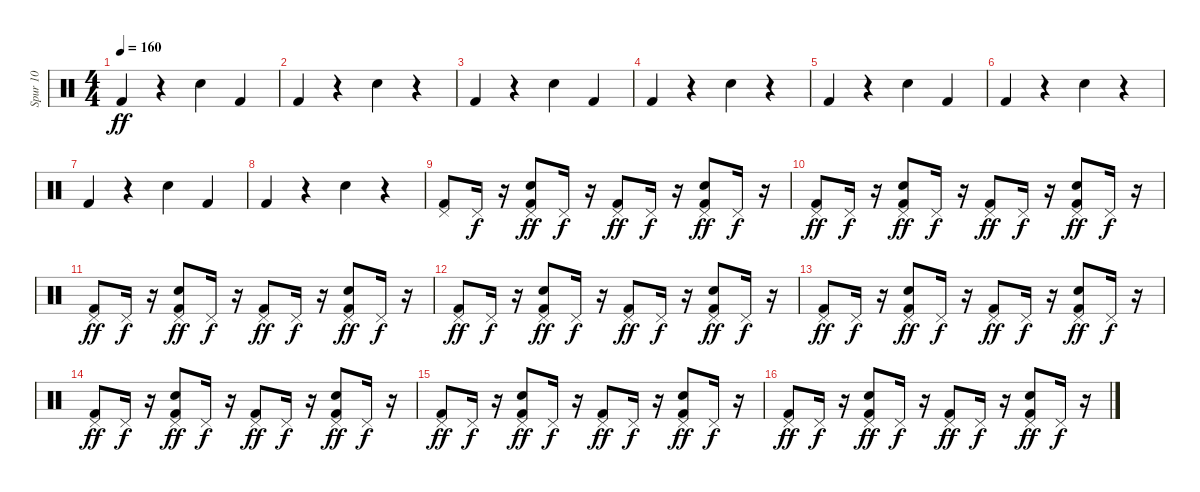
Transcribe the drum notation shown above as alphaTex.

\track ("Spur 10" "Spur 10") {instrument percussion}
\staff {score}
\articulation defaults
\ts (4 4)
\tempo 160
\clef neutral
\ks c "Kick (hit) 2".4{dy ff}
r.4 "Snare (hit) 2".4 "Kick (hit) 2".4 |
"Kick (hit) 2".4 r.4 "Snare (hit) 2".4 r.4 |
"Kick (hit) 2".4 r.4 "Snare (hit) 2".4 "Kick (hit) 2".4 |
"Kick (hit) 2".4 r.4 "Snare (hit) 2".4 r.4 |
"Kick (hit) 2".4 r.4 "Snare (hit) 2".4 "Kick (hit) 2".4 |
"Kick (hit) 2".4 r.4 "Snare (hit) 2".4 r.4 |
"Kick (hit) 2".4 r.4 "Snare (hit) 2".4 "Kick (hit) 2".4 |
"Kick (hit) 2".4 r.4 "Snare (hit) 2".4 r.4 |
("Kick (hit) 2" "Pedal Hi-Hat (hit)").8 "Pedal Hi-Hat (hit)".16{dy f} r.16 ("Kick (hit) 2" "Snare (hit) 2" "Pedal Hi-Hat (hit)").8{dy ff} "Pedal Hi-Hat (hit)".16{dy f} r.16 ("Kick (hit) 2" "Pedal Hi-Hat (hit)").8{dy ff} "Pedal Hi-Hat (hit)".16{dy f} r.16 ("Snare (hit) 2" "Kick (hit) 2" "Pedal Hi-Hat (hit)").8{dy ff} "Pedal Hi-Hat (hit)".16{dy f} r.16 |
("Kick (hit) 2" "Pedal Hi-Hat (hit)").8{dy ff} "Pedal Hi-Hat (hit)".16{dy f} r.16 ("Kick (hit) 2" "Snare (hit) 2" "Pedal Hi-Hat (hit)").8{dy ff} "Pedal Hi-Hat (hit)".16{dy f} r.16 ("Kick (hit) 2" "Pedal Hi-Hat (hit)").8{dy ff} "Pedal Hi-Hat (hit)".16{dy f} r.16 ("Snare (hit) 2" "Kick (hit) 2" "Pedal Hi-Hat (hit)").8{dy ff} "Pedal Hi-Hat (hit)".16{dy f} r.16 |
("Kick (hit) 2" "Pedal Hi-Hat (hit)").8{dy ff} "Pedal Hi-Hat (hit)".16{dy f} r.16 ("Kick (hit) 2" "Snare (hit) 2" "Pedal Hi-Hat (hit)").8{dy ff} "Pedal Hi-Hat (hit)".16{dy f} r.16 ("Kick (hit) 2" "Pedal Hi-Hat (hit)").8{dy ff} "Pedal Hi-Hat (hit)".16{dy f} r.16 ("Snare (hit) 2" "Kick (hit) 2" "Pedal Hi-Hat (hit)").8{dy ff} "Pedal Hi-Hat (hit)".16{dy f} r.16 |
("Kick (hit) 2" "Pedal Hi-Hat (hit)").8{dy ff} "Pedal Hi-Hat (hit)".16{dy f} r.16 ("Snare (hit) 2" "Kick (hit) 2" "Pedal Hi-Hat (hit)").8{dy ff} "Pedal Hi-Hat (hit)".16{dy f} r.16 ("Kick (hit) 2" "Pedal Hi-Hat (hit)").8{dy ff} "Pedal Hi-Hat (hit)".16{dy f} r.16 ("Kick (hit) 2" "Snare (hit) 2" "Pedal Hi-Hat (hit)").8{dy ff} "Pedal Hi-Hat (hit)".16{dy f} r.16 |
("Kick (hit) 2" "Pedal Hi-Hat (hit)").8{dy ff} "Pedal Hi-Hat (hit)".16{dy f} r.16 ("Kick (hit) 2" "Snare (hit) 2" "Pedal Hi-Hat (hit)").8{dy ff} "Pedal Hi-Hat (hit)".16{dy f} r.16 ("Kick (hit) 2" "Pedal Hi-Hat (hit)").8{dy ff} "Pedal Hi-Hat (hit)".16{dy f} r.16 ("Kick (hit) 2" "Snare (hit) 2" "Pedal Hi-Hat (hit)").8{dy ff} "Pedal Hi-Hat (hit)".16{dy f} r.16 |
("Kick (hit) 2" "Pedal Hi-Hat (hit)").8{dy ff} "Pedal Hi-Hat (hit)".16{dy f} r.16 ("Kick (hit) 2" "Snare (hit) 2" "Pedal Hi-Hat (hit)").8{dy ff} "Pedal Hi-Hat (hit)".16{dy f} r.16 ("Kick (hit) 2" "Pedal Hi-Hat (hit)").8{dy ff} "Pedal Hi-Hat (hit)".16{dy f} r.16 ("Snare (hit) 2" "Kick (hit) 2" "Pedal Hi-Hat (hit)").8{dy ff} "Pedal Hi-Hat (hit)".16{dy f} r.16 |
("Kick (hit) 2" "Pedal Hi-Hat (hit)").8{dy ff} "Pedal Hi-Hat (hit)".16{dy f} r.16 ("Snare (hit) 2" "Kick (hit) 2" "Pedal Hi-Hat (hit)").8{dy ff} "Pedal Hi-Hat (hit)".16{dy f} r.16 ("Kick (hit) 2" "Pedal Hi-Hat (hit)").8{dy ff} "Pedal Hi-Hat (hit)".16{dy f} r.16 ("Kick (hit) 2" "Snare (hit) 2" "Pedal Hi-Hat (hit)").8{dy ff} "Pedal Hi-Hat (hit)".16{dy f} r.16 |
("Kick (hit) 2" "Pedal Hi-Hat (hit)").8{dy ff} "Pedal Hi-Hat (hit)".16{dy f} r.16 ("Kick (hit) 2" "Snare (hit) 2" "Pedal Hi-Hat (hit)").8{dy ff} "Pedal Hi-Hat (hit)".16{dy f} r.16 ("Kick (hit) 2" "Pedal Hi-Hat (hit)").8{dy ff} "Pedal Hi-Hat (hit)".16{dy f} r.16 ("Kick (hit) 2" "Snare (hit) 2" "Pedal Hi-Hat (hit)").8{dy ff} "Pedal Hi-Hat (hit)".16{dy f} r.16
